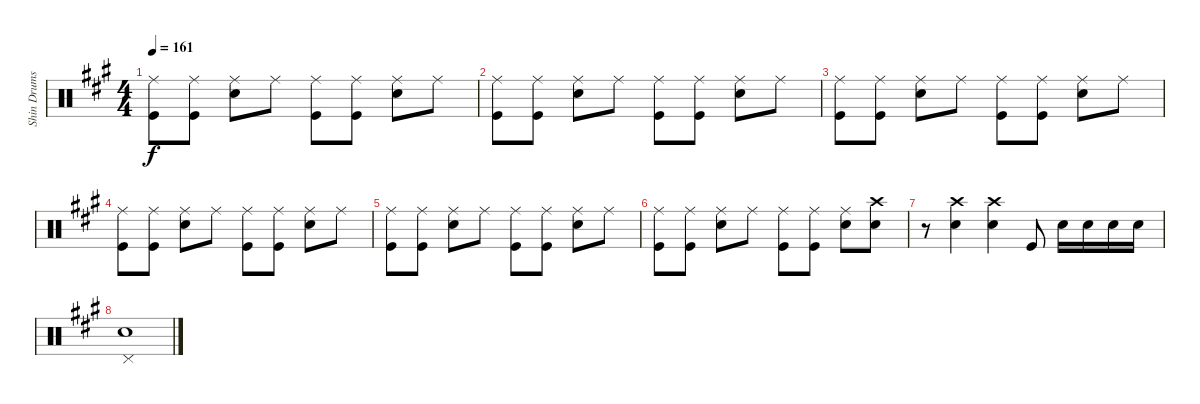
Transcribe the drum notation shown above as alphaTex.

\track ("Shin Drums" "Shin Drums") {instrument percussion}
\staff {score}
\articulation defaults
\ts (4 4)
\tempo 161
\clef neutral
\ks a
("Ride (middle)" "Kick (hit)").8{dy f} ("Ride (middle)" "Kick (hit)").8 ("Ride (middle)" "Snare (hit) 2").8 "Ride (middle)".8 ("Ride (middle)" "Kick (hit)").8 ("Ride (middle)" "Kick (hit)").8 ("Ride (middle)" "Snare (hit) 2").8 "Ride (middle)".8 |
("Ride (middle)" "Kick (hit)").8 ("Ride (middle)" "Kick (hit)").8 ("Ride (middle)" "Snare (hit) 2").8 "Ride (middle)".8 ("Ride (middle)" "Kick (hit)").8 ("Ride (middle)" "Kick (hit)").8 ("Ride (middle)" "Snare (hit) 2").8 "Ride (middle)".8 |
("Ride (middle)" "Kick (hit)").8 ("Ride (middle)" "Kick (hit)").8 ("Ride (middle)" "Snare (hit) 2").8 "Ride (middle)".8 ("Ride (middle)" "Kick (hit)").8 ("Ride (middle)" "Kick (hit)").8 ("Ride (middle)" "Snare (hit) 2").8 "Ride (middle)".8 |
("Ride (middle)" "Kick (hit)").8 ("Ride (middle)" "Kick (hit)").8 ("Ride (middle)" "Snare (hit) 2").8 "Ride (middle)".8 ("Ride (middle)" "Kick (hit)").8 ("Ride (middle)" "Kick (hit)").8 ("Ride (middle)" "Snare (hit) 2").8 "Ride (middle)".8 |
("Ride (middle)" "Kick (hit)").8 ("Ride (middle)" "Kick (hit)").8 ("Ride (middle)" "Snare (hit) 2").8 "Ride (middle)".8 ("Ride (middle)" "Kick (hit)").8 ("Ride (middle)" "Kick (hit)").8 ("Ride (middle)" "Snare (hit) 2").8 "Ride (middle)".8 |
("Ride (middle)" "Kick (hit)").8 ("Ride (middle)" "Kick (hit)").8 ("Ride (middle)" "Snare (hit) 2").8 "Ride (middle)".8 ("Ride (middle)" "Kick (hit)").8 ("Ride (middle)" "Kick (hit)").8 ("Ride (middle)" "Snare (hit) 2").8 ("Crash high (hit)" "Snare (hit) 2").8 |
r.8 ("Crash high (hit)" "Snare (hit) 2").4 ("Crash high (hit)" "Snare (hit) 2").4 "Kick (hit)".8 "Snare (hit) 2".16 "Snare (hit) 2".16 "Snare (hit) 2".16 "Snare (hit) 2".16 |
("Pedal Hi-Hat (hit)" "Snare (hit) 2").1
